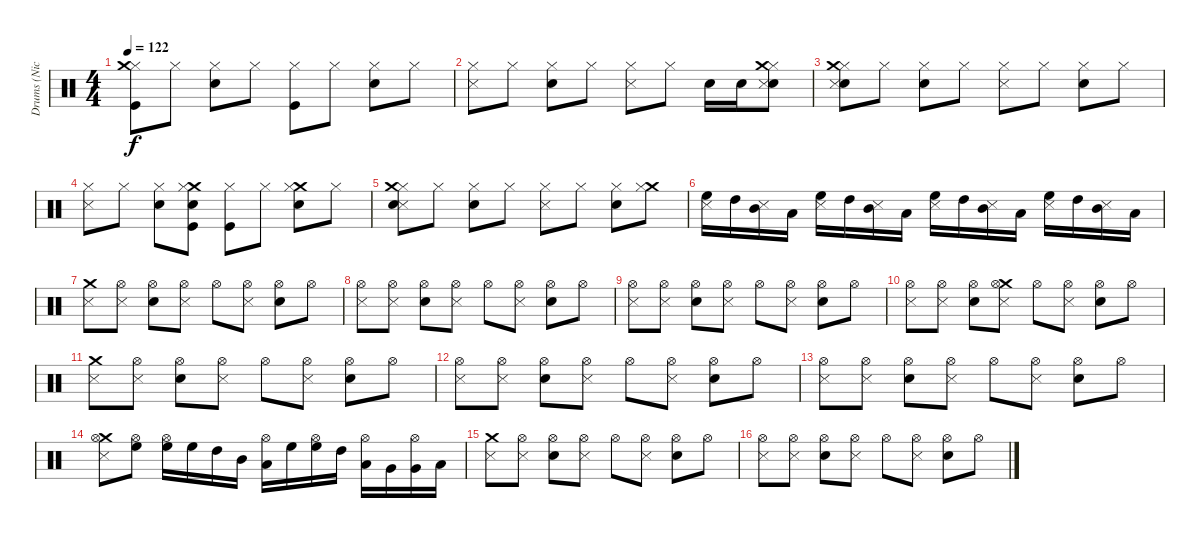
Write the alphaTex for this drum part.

\track ("Drums (Nick Menza)" "Drums (Nic") {instrument percussion}
\staff {score}
\articulation defaults
\ts (4 4)
\tempo 122
\clef neutral
\ks c
("Hi-Hat (closed)" "Kick (hit)" "Crash medium (hit)").8{dy f} "Hi-Hat (closed)".8 ("Electric Snare (hit)" "Hi-Hat (closed)").8 "Hi-Hat (closed)".8 ("Kick (hit)" "Hi-Hat (closed)").8 "Hi-Hat (closed)".8 ("Electric Snare (hit)" "Hi-Hat (closed)").8 "Hi-Hat (closed)".8 |
("Hi-Hat (closed)" "Metronome (hit)").8 "Hi-Hat (closed)".8 ("Hi-Hat (closed)" "Electric Snare (hit)").8 "Hi-Hat (closed)".8 ("Hi-Hat (closed)" "Metronome (hit)").8 "Hi-Hat (closed)".8 "Electric Snare (hit)".16 "Electric Snare (hit)".16 ("Hi-Hat (closed)" "Electric Snare (hit)" "Metronome (hit)" "Crash medium (hit)").8 |
("Hi-Hat (closed)" "Crash medium (hit)" "Electric Snare (hit)" "Metronome (hit)").8 "Hi-Hat (closed)".8 ("Electric Snare (hit)" "Hi-Hat (closed)").8 "Hi-Hat (closed)".8 ("Metronome (hit)" "Hi-Hat (closed)").8 "Hi-Hat (closed)".8 ("Electric Snare (hit)" "Hi-Hat (closed)").8 "Hi-Hat (closed)".8 |
("Hi-Hat (closed)" "Metronome (hit)").8 "Hi-Hat (closed)".8 ("Electric Snare (hit)" "Hi-Hat (closed)").8 ("Electric Snare (hit)" "Kick (hit)" "Crash medium (hit)" "Hi-Hat (closed)").8 ("Kick (hit)" "Hi-Hat (closed)").8 "Hi-Hat (closed)".8 ("Crash medium (hit)" "Electric Snare (hit)" "Hi-Hat (closed)").8 "Hi-Hat (closed)".8 |
("Metronome (hit)" "Electric Snare (hit)" "Hi-Hat (closed)" "Crash medium (hit)").8 "Hi-Hat (closed)".8 ("Electric Snare (hit)" "Hi-Hat (closed)").8 "Hi-Hat (closed)".8 ("Metronome (hit)" "Hi-Hat (closed)").8 "Hi-Hat (closed)".8 ("Electric Snare (hit)" "Hi-Hat (closed)").8 ("Crash medium (hit)" "Hi-Hat (closed)").8 |
("Metronome (hit)" "High Floor Tom (hit)").16 "High Tom (hit)".16 ("Metronome (hit)" "Mid Tom (hit)").16 "Low Tom (hit)".16 ("Metronome (hit)" "High Floor Tom (hit)").16 "High Tom (hit)".16 ("Metronome (hit)" "Mid Tom (hit)").16 "Low Tom (hit)".16 ("Metronome (hit)" "High Floor Tom (hit)").16 "High Tom (hit)".16 ("Metronome (hit)" "Mid Tom (hit)").16 "Low Tom (hit)".16 ("Metronome (hit)" "High Floor Tom (hit)").16 "High Tom (hit)".16 ("Metronome (hit)" "Mid Tom (hit)").16 "Low Tom (hit)".16 |
("Crash medium (hit)" "Metronome (hit)").8 ("Hi-Hat (open)" "Metronome (hit)").8 ("Hi-Hat (open)" "Electric Snare (hit)").8 ("Hi-Hat (open)" "Metronome (hit)").8 "Hi-Hat (open)".8 ("Metronome (hit)" "Hi-Hat (open)").8 ("Electric Snare (hit)" "Hi-Hat (open)").8 "Hi-Hat (open)".8 |
("Hi-Hat (open)" "Metronome (hit)").8 ("Hi-Hat (open)" "Metronome (hit)").8 ("Hi-Hat (open)" "Electric Snare (hit)").8 ("Hi-Hat (open)" "Metronome (hit)").8 "Hi-Hat (open)".8 ("Metronome (hit)" "Hi-Hat (open)").8 ("Electric Snare (hit)" "Hi-Hat (open)").8 "Hi-Hat (open)".8 |
("Hi-Hat (open)" "Metronome (hit)").8 ("Hi-Hat (open)" "Metronome (hit)").8 ("Hi-Hat (open)" "Electric Snare (hit)").8 ("Hi-Hat (open)" "Metronome (hit)").8 "Hi-Hat (open)".8 ("Metronome (hit)" "Hi-Hat (open)").8 ("Electric Snare (hit)" "Hi-Hat (open)").8 "Hi-Hat (open)".8 |
("Hi-Hat (open)" "Metronome (hit)").8 ("Hi-Hat (open)" "Metronome (hit)").8 ("Hi-Hat (open)" "Electric Snare (hit)").8 ("Crash medium (hit)" "Hi-Hat (open)" "Metronome (hit)").8 "Hi-Hat (open)".8 ("Metronome (hit)" "Hi-Hat (open)").8 ("Electric Snare (hit)" "Hi-Hat (open)").8 "Hi-Hat (open)".8 |
("Crash medium (hit)" "Metronome (hit)").8 ("Hi-Hat (open)" "Metronome (hit)").8 ("Hi-Hat (open)" "Electric Snare (hit)").8 ("Hi-Hat (open)" "Metronome (hit)").8 "Hi-Hat (open)".8 ("Metronome (hit)" "Hi-Hat (open)").8 ("Electric Snare (hit)" "Hi-Hat (open)").8 "Hi-Hat (open)".8 |
("Hi-Hat (open)" "Metronome (hit)").8 ("Hi-Hat (open)" "Metronome (hit)").8 ("Hi-Hat (open)" "Electric Snare (hit)").8 ("Hi-Hat (open)" "Metronome (hit)").8 "Hi-Hat (open)".8 ("Metronome (hit)" "Hi-Hat (open)").8 ("Electric Snare (hit)" "Hi-Hat (open)").8 "Hi-Hat (open)".8 |
("Hi-Hat (open)" "Metronome (hit)").8 ("Hi-Hat (open)" "Metronome (hit)").8 ("Hi-Hat (open)" "Electric Snare (hit)").8 ("Hi-Hat (open)" "Metronome (hit)").8 "Hi-Hat (open)".8 ("Metronome (hit)" "Hi-Hat (open)").8 ("Electric Snare (hit)" "Hi-Hat (open)").8 "Hi-Hat (open)".8 |
("Crash medium (hit)" "Hi-Hat (open)" "Metronome (hit)").8 ("High Floor Tom (hit)" "Hi-Hat (open)").8 ("High Floor Tom (hit)" "Hi-Hat (open)").16 "High Floor Tom (hit)".16 "High Tom (hit)".16 "Mid Tom (hit)".16 ("Low Tom (hit)" "Hi-Hat (open)").16 "High Floor Tom (hit)".16 ("High Floor Tom (hit)" "Hi-Hat (open)").16 "High Tom (hit)".16 ("Low Tom (hit)" "Hi-Hat (open)").16 "Very Low Tom (hit)".16 ("Very Low Tom (hit)" "Hi-Hat (open)").16 "Low Floor Tom (hit)".16 |
("Crash medium (hit)" "Metronome (hit)").8 ("Hi-Hat (open)" "Metronome (hit)").8 ("Hi-Hat (open)" "Electric Snare (hit)").8 ("Hi-Hat (open)" "Metronome (hit)").8 "Hi-Hat (open)".8 ("Metronome (hit)" "Hi-Hat (open)").8 ("Electric Snare (hit)" "Hi-Hat (open)").8 "Hi-Hat (open)".8 |
("Hi-Hat (open)" "Metronome (hit)").8 ("Hi-Hat (open)" "Metronome (hit)").8 ("Hi-Hat (open)" "Electric Snare (hit)").8 ("Hi-Hat (open)" "Metronome (hit)").8 "Hi-Hat (open)".8 ("Metronome (hit)" "Hi-Hat (open)").8 ("Electric Snare (hit)" "Hi-Hat (open)").8 "Hi-Hat (open)".8
